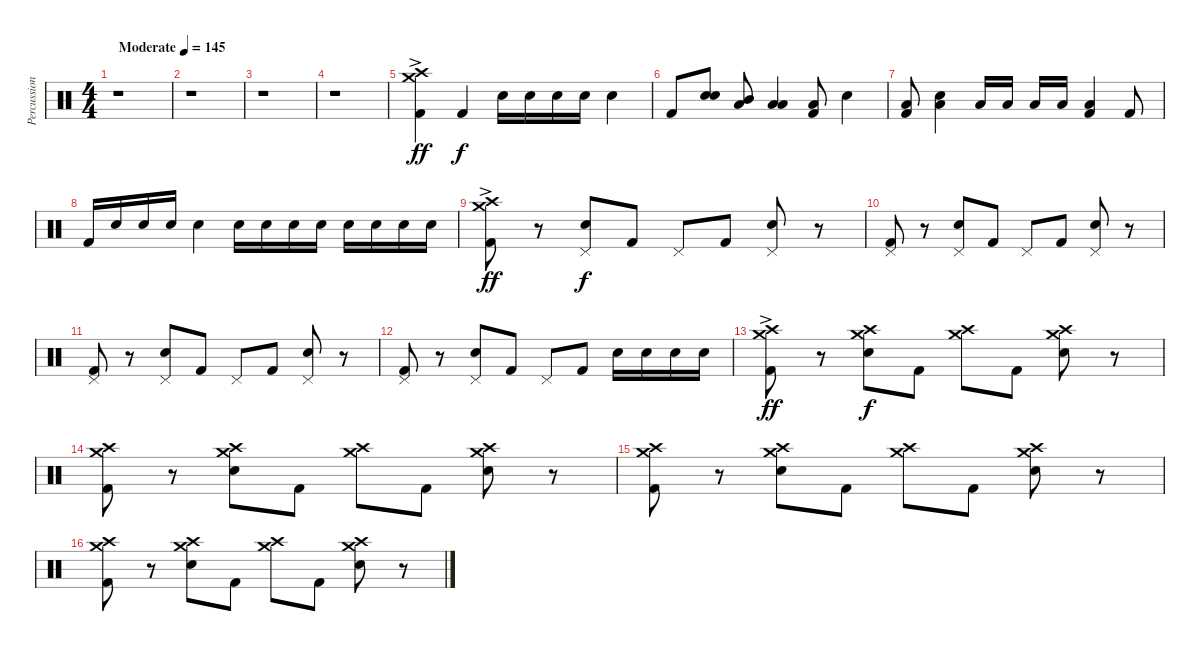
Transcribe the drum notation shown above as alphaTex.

\track ("Percussion" "Percussion") {instrument percussion}
\staff {score}
\articulation defaults
\ts (4 4)
\tempo (145 "Moderate")
\clef neutral
\ks c
r.1{dy ff} |
r.1 |
r.1 |
r.1 |
("Crash high (hit)"{ac} "Crash medium (hit)"{ac} "Kick (hit) 2"{ac}).4 "Kick (hit) 2".4{dy f} "Electric Snare (hit)".16 "Electric Snare (hit)".16 "Electric Snare (hit)".16 "Electric Snare (hit)".16 "Electric Snare (hit)".4 |
"Kick (hit) 2".8 ("Electric Snare (hit)" "Electric Snare (hit)").8 ("Low Tom (hit)" "Mid Tom (hit)").8 ("Low Tom (hit)" "Low Floor Tom (hit)").4 ("Low Floor Tom (hit)" "Kick (hit) 2").8 "Electric Snare (hit)".4 |
("Low Floor Tom (hit)" "Kick (hit) 2").8 ("Low Floor Tom (hit)" "Electric Snare (hit)").4 "Low Tom (hit)".16 "Low Tom (hit)".16 "Low Tom (hit)".16 "Low Tom (hit)".16 ("Low Floor Tom (hit)" "Kick (hit) 2").4 "Kick (hit) 2".8 |
"Kick (hit) 2".16 "Electric Snare (hit)".16 "Electric Snare (hit)".16 "Electric Snare (hit)".16 "Electric Snare (hit)".4 "Electric Snare (hit)".16 "Electric Snare (hit)".16 "Electric Snare (hit)".16 "Electric Snare (hit)".16 "Electric Snare (hit)".16 "Electric Snare (hit)".16 "Electric Snare (hit)".16 "Electric Snare (hit)".16 |
("Crash high (hit)"{ac} "Crash medium (hit)"{ac} "Kick (hit) 2"{ac}).8{dy ff} r.8 ("Pedal Hi-Hat (hit)" "Electric Snare (hit)").8{dy f} "Kick (hit) 2".8 "Pedal Hi-Hat (hit)".8 "Kick (hit) 2".8 ("Pedal Hi-Hat (hit)" "Electric Snare (hit)").8 r.8 |
("Pedal Hi-Hat (hit)" "Kick (hit) 2").8 r.8 ("Pedal Hi-Hat (hit)" "Electric Snare (hit)").8 "Kick (hit) 2".8 "Pedal Hi-Hat (hit)".8 "Kick (hit) 2".8 ("Pedal Hi-Hat (hit)" "Electric Snare (hit)").8 r.8 |
("Pedal Hi-Hat (hit)" "Kick (hit) 2").8 r.8 ("Pedal Hi-Hat (hit)" "Electric Snare (hit)").8 "Kick (hit) 2".8 "Pedal Hi-Hat (hit)".8 "Kick (hit) 2".8 ("Pedal Hi-Hat (hit)" "Electric Snare (hit)").8 r.8 |
("Pedal Hi-Hat (hit)" "Kick (hit) 2").8 r.8 ("Pedal Hi-Hat (hit)" "Electric Snare (hit)").8 "Kick (hit) 2".8 "Pedal Hi-Hat (hit)".8 "Kick (hit) 2".8 "Electric Snare (hit)".16 "Electric Snare (hit)".16 "Electric Snare (hit)".16 "Electric Snare (hit)".16 |
("Crash high (hit)"{ac} "Crash medium (hit)"{ac} "Kick (hit) 2").8{dy ff} r.8 ("Crash high (hit)" "Crash medium (hit)" "Electric Snare (hit)").8{dy f} "Kick (hit) 2".8 ("Crash high (hit)" "Crash medium (hit)").8 "Kick (hit) 2".8 ("Crash high (hit)" "Crash medium (hit)" "Electric Snare (hit)").8 r.8 |
("Crash high (hit)" "Crash medium (hit)" "Kick (hit) 2").8 r.8 ("Crash high (hit)" "Crash medium (hit)" "Electric Snare (hit)").8 "Kick (hit) 2".8 ("Crash high (hit)" "Crash medium (hit)").8 "Kick (hit) 2".8 ("Crash high (hit)" "Crash medium (hit)" "Electric Snare (hit)").8 r.8 |
("Crash high (hit)" "Crash medium (hit)" "Kick (hit) 2").8 r.8 ("Crash high (hit)" "Crash medium (hit)" "Electric Snare (hit)").8 "Kick (hit) 2".8 ("Crash high (hit)" "Crash medium (hit)").8 "Kick (hit) 2".8 ("Crash high (hit)" "Crash medium (hit)" "Electric Snare (hit)").8 r.8 |
("Crash high (hit)" "Crash medium (hit)" "Kick (hit) 2").8 r.8 ("Crash high (hit)" "Crash medium (hit)" "Electric Snare (hit)").8 "Kick (hit) 2".8 ("Crash high (hit)" "Crash medium (hit)").8 "Kick (hit) 2".8 ("Crash high (hit)" "Crash medium (hit)" "Electric Snare (hit)").8 r.8
